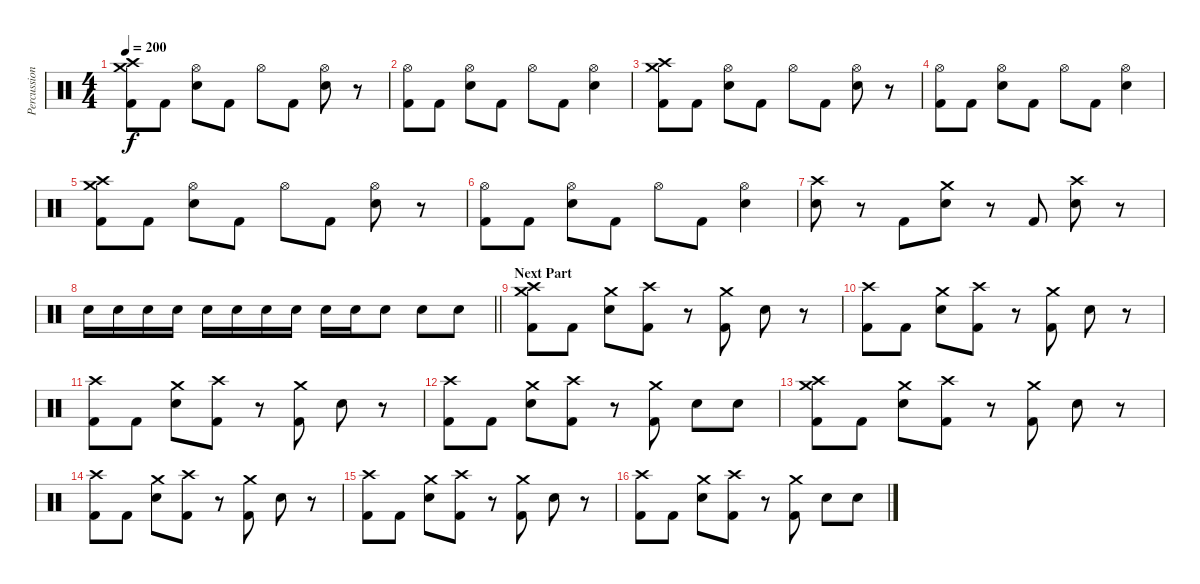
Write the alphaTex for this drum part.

\track ("Percussion" "Percussion") {instrument percussion}
\staff {score}
\articulation defaults
\ts (4 4)
\tempo 200
\clef neutral
\ks c
("Crash high (hit)" "Crash medium (hit)" "Kick (hit) 2").8{dy f} "Kick (hit) 2".8 ("Hi-Hat (open)" "Snare (hit) 2").8 "Kick (hit) 2".8 "Hi-Hat (open)".8 "Kick (hit) 2".8 ("Hi-Hat (open)" "Snare (hit) 2").8 r.8 |
("Hi-Hat (open)" "Kick (hit) 2").8 "Kick (hit) 2".8 ("Hi-Hat (open)" "Snare (hit) 2").8 "Kick (hit) 2".8 "Hi-Hat (open)".8 "Kick (hit) 2".8 ("Hi-Hat (open)" "Snare (hit) 2").4 |
("Crash high (hit)" "Crash medium (hit)" "Kick (hit) 2").8 "Kick (hit) 2".8 ("Hi-Hat (open)" "Snare (hit) 2").8 "Kick (hit) 2".8 "Hi-Hat (open)".8 "Kick (hit) 2".8 ("Hi-Hat (open)" "Snare (hit) 2").8 r.8 |
("Hi-Hat (open)" "Kick (hit) 2").8 "Kick (hit) 2".8 ("Hi-Hat (open)" "Snare (hit) 2").8 "Kick (hit) 2".8 "Hi-Hat (open)".8 "Kick (hit) 2".8 ("Hi-Hat (open)" "Snare (hit) 2").4 |
("Crash high (hit)" "Crash medium (hit)" "Kick (hit) 2").8 "Kick (hit) 2".8 ("Hi-Hat (open)" "Snare (hit) 2").8 "Kick (hit) 2".8 "Hi-Hat (open)".8 "Kick (hit) 2".8 ("Hi-Hat (open)" "Snare (hit) 2").8 r.8 |
("Hi-Hat (open)" "Kick (hit) 2").8 "Kick (hit) 2".8 ("Hi-Hat (open)" "Snare (hit) 2").8 "Kick (hit) 2".8 "Hi-Hat (open)".8 "Kick (hit) 2".8 ("Hi-Hat (open)" "Snare (hit) 2").4 |
("Crash high (hit)" "Snare (hit) 2").8 r.8 "Kick (hit) 2".8 ("Crash medium (hit)" "Snare (hit) 2").8 r.8 "Kick (hit) 2".8 ("Crash high (hit)" "Snare (hit) 2").8 r.8 |
\barLineRight lightlight "Snare (hit) 2".16 "Snare (hit) 2".16 "Snare (hit) 2".16 "Snare (hit) 2".16 "Snare (hit) 2".16 "Snare (hit) 2".16 "Snare (hit) 2".16 "Snare (hit) 2".16 "Snare (hit) 2".16 "Snare (hit) 2".16 "Snare (hit) 2".8 "Snare (hit) 2".8 "Snare (hit) 2".8
|
\section ("" "Next Part")
("Crash high (hit)" "Crash medium (hit)" "Kick (hit) 2").8 "Kick (hit) 2".8 ("Crash medium (hit)" "Snare (hit) 2").8 ("Crash high (hit)" "Kick (hit) 2").8 r.8 ("Crash medium (hit)" "Kick (hit) 2").8 "Snare (hit) 2".8 r.8 |
("Crash high (hit)" "Kick (hit) 2").8 "Kick (hit) 2".8 ("Crash medium (hit)" "Snare (hit) 2").8 ("Crash high (hit)" "Kick (hit) 2").8 r.8 ("Crash medium (hit)" "Kick (hit) 2").8 "Snare (hit) 2".8 r.8 |
("Crash high (hit)" "Kick (hit) 2").8 "Kick (hit) 2".8 ("Crash medium (hit)" "Snare (hit) 2").8 ("Crash high (hit)" "Kick (hit) 2").8 r.8 ("Crash medium (hit)" "Kick (hit) 2").8 "Snare (hit) 2".8 r.8 |
("Crash high (hit)" "Kick (hit) 2").8 "Kick (hit) 2".8 ("Crash medium (hit)" "Snare (hit) 2").8 ("Crash high (hit)" "Kick (hit) 2").8 r.8 ("Crash medium (hit)" "Kick (hit) 2").8 "Snare (hit) 2".8 "Snare (hit) 2".8 |
("Crash high (hit)" "Crash medium (hit)" "Kick (hit) 2").8 "Kick (hit) 2".8 ("Crash medium (hit)" "Snare (hit) 2").8 ("Crash high (hit)" "Kick (hit) 2").8 r.8 ("Crash medium (hit)" "Kick (hit) 2").8 "Snare (hit) 2".8 r.8 |
("Crash high (hit)" "Kick (hit) 2").8 "Kick (hit) 2".8 ("Crash medium (hit)" "Snare (hit) 2").8 ("Crash high (hit)" "Kick (hit) 2").8 r.8 ("Crash medium (hit)" "Kick (hit) 2").8 "Snare (hit) 2".8 r.8 |
("Crash high (hit)" "Kick (hit) 2").8 "Kick (hit) 2".8 ("Crash medium (hit)" "Snare (hit) 2").8 ("Crash high (hit)" "Kick (hit) 2").8 r.8 ("Crash medium (hit)" "Kick (hit) 2").8 "Snare (hit) 2".8 r.8 |
("Crash high (hit)" "Kick (hit) 2").8 "Kick (hit) 2".8 ("Crash medium (hit)" "Snare (hit) 2").8 ("Crash high (hit)" "Kick (hit) 2").8 r.8 ("Crash medium (hit)" "Kick (hit) 2").8 "Snare (hit) 2".8 "Snare (hit) 2".8
